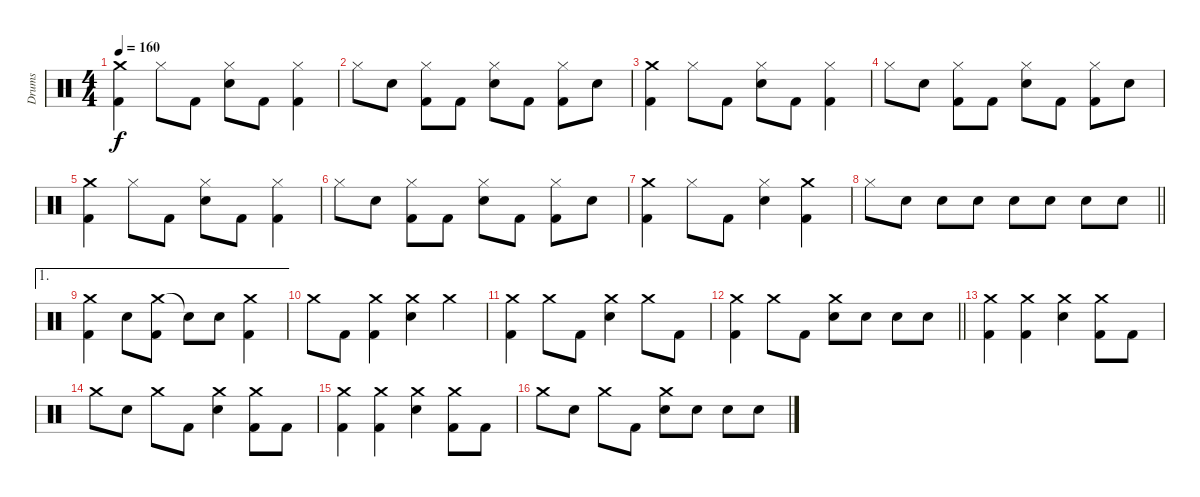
\track ("Drums" "Drums") {instrument percussion}
\staff {score}
\articulation defaults
\ts (4 4)
\tempo 160
\clef neutral
\ks c
("Crash medium (hit)" "Kick (hit) 2").4{dy f} "Hi-Hat (closed)".8 "Kick (hit) 2".8 ("Hi-Hat (closed)" "Snare (hit) 2").8 "Kick (hit) 2".8 ("Hi-Hat (closed)" "Kick (hit) 2").4 |
"Hi-Hat (closed)".8 "Snare (hit) 2".8 ("Hi-Hat (closed)" "Kick (hit) 2").8 "Kick (hit) 2".8 ("Hi-Hat (closed)" "Snare (hit) 2").8 "Kick (hit) 2".8 ("Hi-Hat (closed)" "Kick (hit) 2").8 "Snare (hit) 2".8 |
("Crash medium (hit)" "Kick (hit) 2").4 "Hi-Hat (closed)".8 "Kick (hit) 2".8 ("Hi-Hat (closed)" "Snare (hit) 2").8 "Kick (hit) 2".8 ("Hi-Hat (closed)" "Kick (hit) 2").4 |
"Hi-Hat (closed)".8 "Snare (hit) 2".8 ("Hi-Hat (closed)" "Kick (hit) 2").8 "Kick (hit) 2".8 ("Hi-Hat (closed)" "Snare (hit) 2").8 "Kick (hit) 2".8 ("Hi-Hat (closed)" "Kick (hit) 2").8 "Snare (hit) 2".8 |
("Crash medium (hit)" "Kick (hit) 2").4 "Hi-Hat (closed)".8 "Kick (hit) 2".8 ("Hi-Hat (closed)" "Snare (hit) 2").8 "Kick (hit) 2".8 ("Hi-Hat (closed)" "Kick (hit) 2").4 |
"Hi-Hat (closed)".8 "Snare (hit) 2".8 ("Hi-Hat (closed)" "Kick (hit) 2").8 "Kick (hit) 2".8 ("Hi-Hat (closed)" "Snare (hit) 2").8 "Kick (hit) 2".8 ("Hi-Hat (closed)" "Kick (hit) 2").8 "Snare (hit) 2".8 |
("Crash medium (hit)" "Kick (hit) 2").4 "Hi-Hat (closed)".8 "Kick (hit) 2".8 ("Hi-Hat (closed)" "Snare (hit) 2").4 ("Crash medium (hit)" "Kick (hit) 2").4 |
\barLineRight lightlight "Hi-Hat (closed)".8 "Snare (hit) 2".8 "Snare (hit) 2".8 "Snare (hit) 2".8 "Snare (hit) 2".8 "Snare (hit) 2".8 "Snare (hit) 2".8 "Snare (hit) 2".8
|
\ae 1
("Crash medium (hit)" "Kick (hit) 2").4 "Snare (hit) 2".8 ("Crash medium (hit)" "Kick (hit) 2").8 "Snare (hit)"{t}.8 "Snare (hit) 2".8 ("Crash medium (hit)" "Kick (hit) 2").4 |
"Crash medium (hit)".8 "Kick (hit) 2".8 ("Crash medium (hit)" "Kick (hit) 2").4 ("Crash medium (hit)" "Snare (hit) 2").4 "Crash medium (hit)".4 |
("Crash medium (hit)" "Kick (hit) 2").4 "Crash medium (hit)".8 "Kick (hit) 2".8 ("Crash medium (hit)" "Snare (hit) 2").4 "Crash medium (hit)".8 "Kick (hit) 2".8 |
\barLineRight lightlight
("Crash medium (hit)" "Kick (hit) 2").4 "Crash medium (hit)".8 "Kick (hit) 2".8 ("Crash medium (hit)" "Snare (hit) 2").8 "Snare (hit) 2".8 "Snare (hit) 2".8 "Snare (hit) 2".8 |
("Crash medium (hit)" "Kick (hit) 2").4 ("Crash medium (hit)" "Kick (hit) 2").4 ("Crash medium (hit)" "Snare (hit) 2").4 ("Crash medium (hit)" "Kick (hit) 2").8 "Kick (hit) 2".8 |
"Crash medium (hit)".8 "Snare (hit) 2".8 "Crash medium (hit)".8 "Kick (hit) 2".8 ("Crash medium (hit)" "Snare (hit) 2").4 ("Crash medium (hit)" "Kick (hit) 2").8 "Kick (hit) 2".8 |
("Crash medium (hit)" "Kick (hit) 2").4 ("Crash medium (hit)" "Kick (hit) 2").4 ("Crash medium (hit)" "Snare (hit) 2").4 ("Crash medium (hit)" "Kick (hit) 2").8 "Kick (hit) 2".8 |
"Crash medium (hit)".8 "Snare (hit) 2".8 "Crash medium (hit)".8 "Kick (hit) 2".8 ("Crash medium (hit)" "Snare (hit) 2").8 "Snare (hit) 2".8 "Snare (hit) 2".8 "Snare (hit) 2".8
